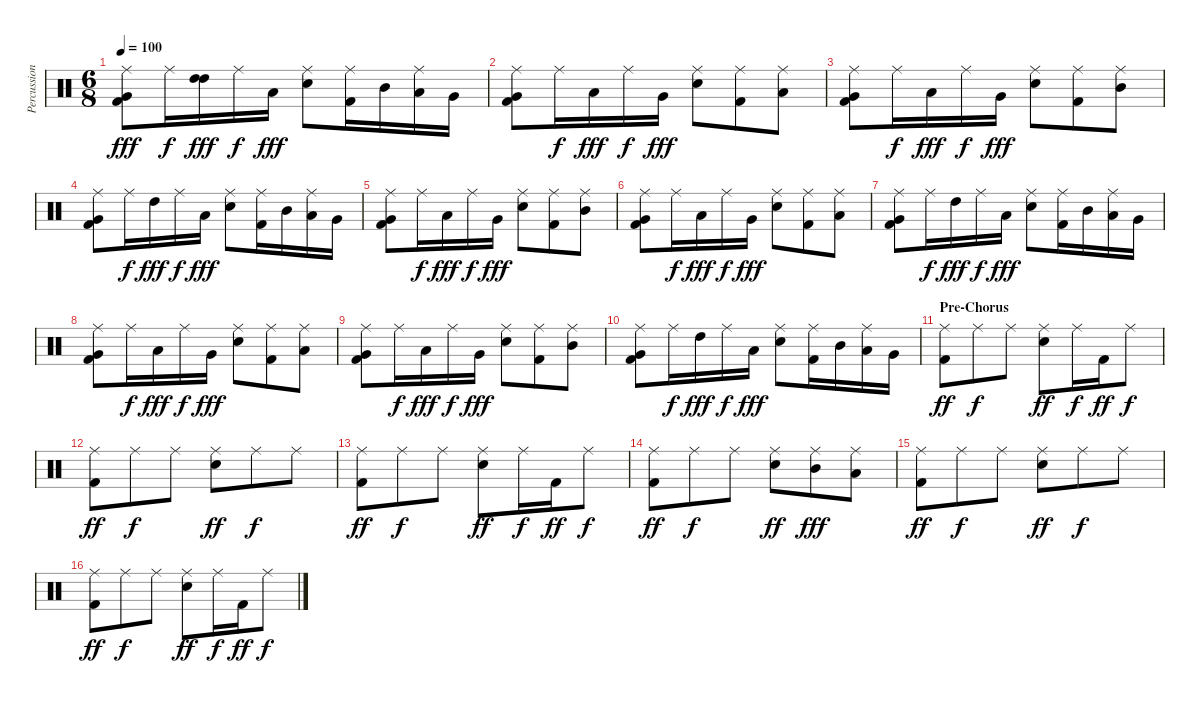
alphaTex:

\track ("Percussion" "Percussion") {instrument percussion}
\staff {score}
\articulation defaults
\ts (6 8)
\tempo 100
\clef neutral
\ks c
("Ride (middle)" "Very Low Tom (hit)" "Kick (hit) 2").8{dy fff} "Ride (middle)".16{dy f} ("High Tom (hit)" "High Tom (hit)").16{dy fff} "Ride (middle)".16{dy f} "Low Tom (hit)".16{dy fff} ("Ride (middle)" "Electric Snare (hit)").8 ("Ride (middle)" "Kick (hit) 2").16 "Mid Tom (hit)".16 ("Ride (middle)" "Low Tom (hit)").16 "Very Low Tom (hit)".16 |
("Ride (middle)" "Very Low Tom (hit)" "Kick (hit) 2").8 "Ride (middle)".16{dy f} "Low Tom (hit)".16{dy fff} "Ride (middle)".16{dy f} "Very Low Tom (hit)".16{dy fff} ("Ride (middle)" "Electric Snare (hit)").8 ("Ride (middle)" "Kick (hit) 2").8 ("Ride (middle)" "Low Tom (hit)").8 |
("Ride (middle)" "Very Low Tom (hit)" "Kick (hit) 2").8 "Ride (middle)".16{dy f} "Low Tom (hit)".16{dy fff} "Ride (middle)".16{dy f} "Very Low Tom (hit)".16{dy fff} ("Ride (middle)" "Electric Snare (hit)").8 ("Ride (middle)" "Kick (hit) 2").8 ("Ride (middle)" "Mid Tom (hit)").8 |
("Ride (middle)" "Kick (hit) 2" "Very Low Tom (hit)").8 "Ride (middle)".16{dy f} "High Tom (hit)".16{dy fff} "Ride (middle)".16{dy f} "Low Tom (hit)".16{dy fff} ("Ride (middle)" "Electric Snare (hit)").8 ("Ride (middle)" "Kick (hit) 2").16 "Mid Tom (hit)".16 ("Ride (middle)" "Low Tom (hit)").16 "Very Low Tom (hit)".16 |
("Ride (middle)" "Very Low Tom (hit)" "Kick (hit) 2").8 "Ride (middle)".16{dy f} "Low Tom (hit)".16{dy fff} "Ride (middle)".16{dy f} "Very Low Tom (hit)".16{dy fff} ("Ride (middle)" "Electric Snare (hit)").8 ("Ride (middle)" "Kick (hit) 2").8 ("Ride (middle)" "Mid Tom (hit)").8 |
("Ride (middle)" "Very Low Tom (hit)" "Kick (hit) 2").8 "Ride (middle)".16{dy f} "Low Tom (hit)".16{dy fff} "Ride (middle)".16{dy f} "Very Low Tom (hit)".16{dy fff} ("Ride (middle)" "Electric Snare (hit)").8 ("Ride (middle)" "Kick (hit) 2").8 ("Ride (middle)" "Low Tom (hit)").8 |
("Ride (middle)" "Kick (hit) 2" "Very Low Tom (hit)").8 "Ride (middle)".16{dy f} "High Tom (hit)".16{dy fff} "Ride (middle)".16{dy f} "Low Tom (hit)".16{dy fff} ("Ride (middle)" "Electric Snare (hit)").8 ("Ride (middle)" "Kick (hit) 2").16 "Mid Tom (hit)".16 ("Ride (middle)" "Low Tom (hit)").16 "Very Low Tom (hit)".16 |
("Ride (middle)" "Very Low Tom (hit)" "Kick (hit) 2").8 "Ride (middle)".16{dy f} "Low Tom (hit)".16{dy fff} "Ride (middle)".16{dy f} "Very Low Tom (hit)".16{dy fff} ("Ride (middle)" "Electric Snare (hit)").8 ("Ride (middle)" "Kick (hit) 2").8 ("Ride (middle)" "Low Tom (hit)").8 |
("Ride (middle)" "Very Low Tom (hit)" "Kick (hit) 2").8 "Ride (middle)".16{dy f} "Low Tom (hit)".16{dy fff} "Ride (middle)".16{dy f} "Very Low Tom (hit)".16{dy fff} ("Ride (middle)" "Electric Snare (hit)").8 ("Ride (middle)" "Kick (hit) 2").8 ("Ride (middle)" "Mid Tom (hit)").8 |
("Ride (middle)" "Kick (hit) 2" "Very Low Tom (hit)").8 "Ride (middle)".16{dy f} "High Tom (hit)".16{dy fff} "Ride (middle)".16{dy f} "Low Tom (hit)".16{dy fff} ("Ride (middle)" "Electric Snare (hit)").8 ("Ride (middle)" "Kick (hit) 2").16 "Mid Tom (hit)".16 ("Low Tom (hit)" "Ride (middle)").16 "Very Low Tom (hit)".16 |
\section ("" "Pre-Chorus")
("Kick (hit) 2" "Ride (middle)").8{dy ff} "Ride (middle)".8{dy f} "Ride (middle)".8 ("Electric Snare (hit)" "Ride (middle)").8{dy ff} "Ride (middle)".16{dy f} "Kick (hit) 2".16{dy ff} "Ride (middle)".8{dy f} |
("Kick (hit) 2" "Ride (middle)").8{dy ff} "Ride (middle)".8{dy f} "Ride (middle)".8 ("Electric Snare (hit)" "Ride (middle)").8{dy ff} "Ride (middle)".8{dy f} "Ride (middle)".8 |
("Ride (middle)" "Kick (hit) 2").8{dy ff} "Ride (middle)".8{dy f} "Ride (middle)".8 ("Ride (middle)" "Electric Snare (hit)").8{dy ff} "Ride (middle)".16{dy f} "Kick (hit) 2".16{dy ff} "Ride (middle)".8{dy f} |
("Ride (middle)" "Kick (hit) 2").8{dy ff} "Ride (middle)".8{dy f} "Ride (middle)".8 ("Ride (middle)" "Electric Snare (hit)").8{dy ff} ("Mid Tom (hit)" "Ride (middle)").8{dy fff} ("Low Tom (hit)" "Ride (middle)").8 |
("Ride (middle)" "Kick (hit) 2").8{dy ff} "Ride (middle)".8{dy f} "Ride (middle)".8 ("Ride (middle)" "Electric Snare (hit)").8{dy ff} "Ride (middle)".8{dy f} "Ride (middle)".8 |
("Kick (hit) 2" "Ride (middle)").8{dy ff} "Ride (middle)".8{dy f} "Ride (middle)".8 ("Electric Snare (hit)" "Ride (middle)").8{dy ff} "Ride (middle)".16{dy f} "Kick (hit) 2".16{dy ff} "Ride (middle)".8{dy f}
